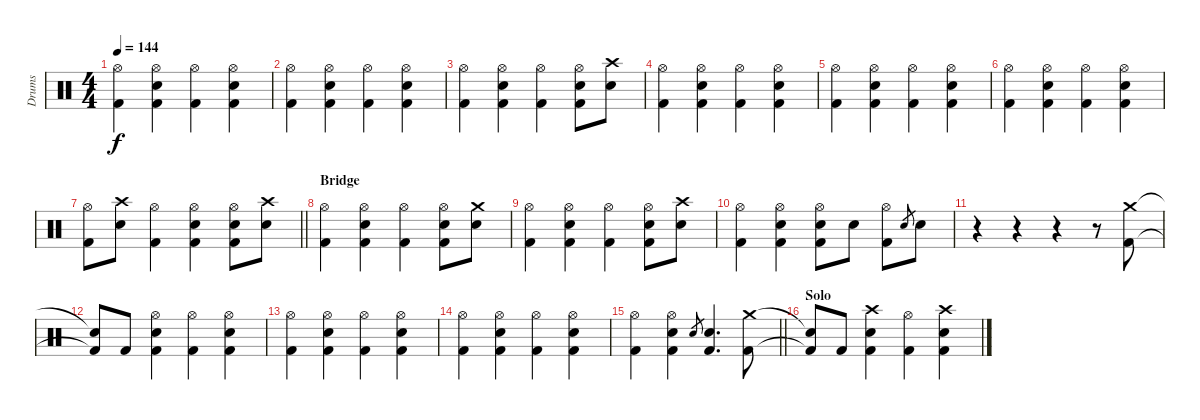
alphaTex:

\track ("Drums" "Drums") {instrument percussion}
\staff {score}
\articulation defaults
\ts (4 4)
\tempo 144
\clef neutral
\ks c
("Hi-Hat (open)" "Kick (hit) 2").4{dy f} ("Hi-Hat (open)" "Electric Snare (hit)" "Kick (hit) 2").4 ("Hi-Hat (open)" "Kick (hit) 2").4 ("Hi-Hat (open)" "Electric Snare (hit)" "Kick (hit) 2").4 |
("Hi-Hat (open)" "Kick (hit) 2").4 ("Hi-Hat (open)" "Electric Snare (hit)" "Kick (hit) 2").4 ("Hi-Hat (open)" "Kick (hit) 2").4 ("Hi-Hat (open)" "Electric Snare (hit)" "Kick (hit) 2").4 |
("Hi-Hat (open)" "Kick (hit) 2").4 ("Hi-Hat (open)" "Electric Snare (hit)" "Kick (hit) 2").4 ("Hi-Hat (open)" "Kick (hit) 2").4 ("Hi-Hat (open)" "Electric Snare (hit)" "Kick (hit) 2").8 ("Crash high (hit)" "Electric Snare (hit)").8 |
("Hi-Hat (open)" "Kick (hit) 2").4 ("Hi-Hat (open)" "Electric Snare (hit)" "Kick (hit) 2").4 ("Hi-Hat (open)" "Kick (hit) 2").4 ("Hi-Hat (open)" "Electric Snare (hit)" "Kick (hit) 2").4 |
("Hi-Hat (open)" "Kick (hit) 2").4 ("Hi-Hat (open)" "Electric Snare (hit)" "Kick (hit) 2").4 ("Hi-Hat (open)" "Kick (hit) 2").4 ("Hi-Hat (open)" "Electric Snare (hit)" "Kick (hit) 2").4 |
("Hi-Hat (open)" "Kick (hit) 2").4 ("Hi-Hat (open)" "Electric Snare (hit)" "Kick (hit) 2").4 ("Hi-Hat (open)" "Kick (hit) 2").4 ("Hi-Hat (open)" "Electric Snare (hit)" "Kick (hit) 2").4 |
\barLineRight lightlight
("Hi-Hat (open)" "Kick (hit) 2").8 ("Crash high (hit)" "Electric Snare (hit)").8 ("Hi-Hat (open)" "Kick (hit) 2").4 ("Hi-Hat (open)" "Electric Snare (hit)" "Kick (hit) 2").4 ("Hi-Hat (open)" "Electric Snare (hit)" "Kick (hit) 2").8 ("Crash high (hit)" "Electric Snare (hit)").8 |
\section ("" "Bridge")
("Hi-Hat (open)" "Kick (hit) 2").4 ("Hi-Hat (open)" "Electric Snare (hit)" "Kick (hit) 2").4 ("Hi-Hat (open)" "Kick (hit) 2").4 ("Hi-Hat (open)" "Electric Snare (hit)" "Kick (hit) 2").8 ("Crash medium (hit)" "Electric Snare (hit)").8 |
("Hi-Hat (open)" "Kick (hit) 2").4 ("Hi-Hat (open)" "Electric Snare (hit)" "Kick (hit) 2").4 ("Hi-Hat (open)" "Kick (hit) 2").4 ("Hi-Hat (open)" "Electric Snare (hit)" "Kick (hit) 2").8 ("Crash high (hit)" "Electric Snare (hit)").8 |
("Hi-Hat (open)" "Kick (hit) 2").4 ("Hi-Hat (open)" "Electric Snare (hit)" "Kick (hit) 2").4 ("Hi-Hat (open)" "Electric Snare (hit)" "Kick (hit) 2").8 "Electric Snare (hit)".8 ("Hi-Hat (open)" "Kick (hit) 2").8 "Electric Snare (hit)".8{gr} "Electric Snare (hit)".8 |
r.4 r.4 r.4 r.8 ("Crash medium (hit)" "Kick (hit) 2").8 |
("Snare (hit)"{t} "Kick (hit) 2"{t}).8 "Kick (hit) 2".8 ("Hi-Hat (open)" "Electric Snare (hit)" "Kick (hit) 2").4 ("Hi-Hat (open)" "Kick (hit) 2").4 ("Hi-Hat (open)" "Electric Snare (hit)" "Kick (hit) 2").4 |
("Hi-Hat (open)" "Kick (hit) 2").4 ("Hi-Hat (open)" "Electric Snare (hit)" "Kick (hit) 2").4 ("Hi-Hat (open)" "Kick (hit) 2").4 ("Hi-Hat (open)" "Electric Snare (hit)" "Kick (hit) 2").4 |
("Hi-Hat (open)" "Kick (hit) 2").4 ("Hi-Hat (open)" "Electric Snare (hit)" "Kick (hit) 2").4 ("Hi-Hat (open)" "Kick (hit) 2").4 ("Hi-Hat (open)" "Electric Snare (hit)" "Kick (hit) 2").4 |
\barLineRight lightlight
("Hi-Hat (open)" "Kick (hit) 2").4 ("Hi-Hat (open)" "Electric Snare (hit)" "Kick (hit) 2").4 "Electric Snare (hit)".8{gr} ("Electric Snare (hit)" "Kick (hit) 2").4{d} ("Crash medium (hit)" "Kick (hit) 2").8 |
\section ("" "Solo")
("Snare (hit)"{t} "Kick (hit) 2"{t}).8 "Kick (hit) 2".8 ("Crash high (hit)" "Electric Snare (hit)" "Kick (hit) 2").4 ("Hi-Hat (open)" "Kick (hit) 2").4 ("Crash high (hit)" "Electric Snare (hit)" "Kick (hit) 2").4
